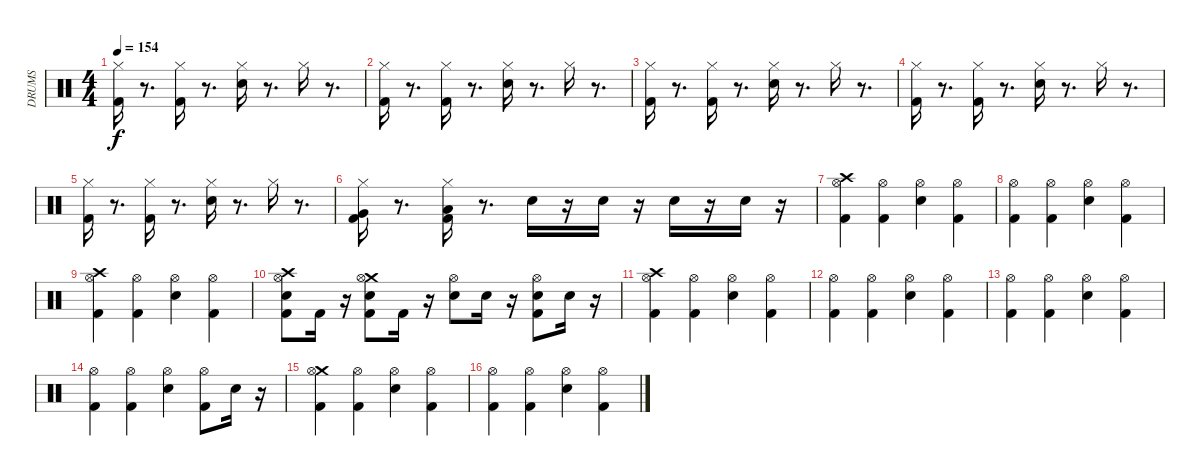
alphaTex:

\track ("DRUMS" "DRUMS") {instrument percussion}
\staff {score}
\articulation defaults
\ts (4 4)
\tempo 154
\clef neutral
\ks c
("Hi-Hat (closed)" "Kick (hit) 2").16{dy f} r.8{d} ("Hi-Hat (closed)" "Kick (hit) 2").16 r.8{d} ("Hi-Hat (closed)" "Snare (hit) 2").16 r.8{d} "Hi-Hat (closed)".16 r.8{d} |
("Hi-Hat (closed)" "Kick (hit) 2").16 r.8{d} ("Hi-Hat (closed)" "Kick (hit) 2").16 r.8{d} ("Hi-Hat (closed)" "Snare (hit) 2").16 r.8{d} "Hi-Hat (closed)".16 r.8{d} |
("Hi-Hat (closed)" "Kick (hit) 2").16 r.8{d} ("Hi-Hat (closed)" "Kick (hit) 2").16 r.8{d} ("Hi-Hat (closed)" "Snare (hit) 2").16 r.8{d} "Hi-Hat (closed)".16 r.8{d} |
("Hi-Hat (closed)" "Kick (hit) 2").16 r.8{d} ("Hi-Hat (closed)" "Kick (hit) 2").16 r.8{d} ("Hi-Hat (closed)" "Snare (hit) 2").16 r.8{d} "Hi-Hat (closed)".16 r.8{d} |
("Hi-Hat (closed)" "Kick (hit) 2").16 r.8{d} ("Hi-Hat (closed)" "Kick (hit) 2").16 r.8{d} ("Hi-Hat (closed)" "Snare (hit) 2").16 r.8{d} "Hi-Hat (closed)".16 r.8{d} |
("Very Low Tom (hit)" "Hi-Hat (closed)" "Kick (hit) 2").16 r.8{d} ("Low Floor Tom (hit)" "Hi-Hat (closed)" "Kick (hit) 2").16 r.8{d} "Snare (hit) 2".16 r.16 "Snare (hit) 2".16 r.16 "Snare (hit) 2".16 r.16 "Snare (hit) 2".16 r.16 |
("Crash high (hit)" "Hi-Hat (open)" "Kick (hit) 2").4 ("Hi-Hat (open)" "Kick (hit) 2").4 ("Hi-Hat (open)" "Snare (hit) 2").4 ("Hi-Hat (open)" "Kick (hit) 2").4 |
("Hi-Hat (open)" "Kick (hit) 2").4 ("Hi-Hat (open)" "Kick (hit) 2").4 ("Hi-Hat (open)" "Snare (hit) 2").4 ("Hi-Hat (open)" "Kick (hit) 2").4 |
("Crash high (hit)" "Hi-Hat (open)" "Kick (hit) 2").4 ("Hi-Hat (open)" "Kick (hit) 2").4 ("Hi-Hat (open)" "Snare (hit) 2").4 ("Hi-Hat (open)" "Kick (hit) 2").4 |
("Crash high (hit)" "Snare (hit) 2" "Hi-Hat (open)" "Kick (hit) 2").8 "Kick (hit) 2".16 r.16 ("Crash medium (hit)" "Snare (hit) 2" "Hi-Hat (open)" "Kick (hit) 2").8 "Kick (hit) 2".16 r.16 ("Hi-Hat (open)" "Snare (hit) 2").8 "Snare (hit) 2".16 r.16 ("Snare (hit) 2" "Hi-Hat (open)" "Kick (hit) 2").8 "Snare (hit) 2".16 r.16 |
("Crash high (hit)" "Hi-Hat (open)" "Kick (hit) 2").4 ("Hi-Hat (open)" "Kick (hit) 2").4 ("Hi-Hat (open)" "Snare (hit) 2").4 ("Hi-Hat (open)" "Kick (hit) 2").4 |
("Hi-Hat (open)" "Kick (hit) 2").4 ("Hi-Hat (open)" "Kick (hit) 2").4 ("Hi-Hat (open)" "Snare (hit) 2").4 ("Hi-Hat (open)" "Kick (hit) 2").4 |
("Hi-Hat (open)" "Kick (hit) 2").4 ("Hi-Hat (open)" "Kick (hit) 2").4 ("Hi-Hat (open)" "Snare (hit) 2").4 ("Hi-Hat (open)" "Kick (hit) 2").4 |
("Hi-Hat (open)" "Kick (hit) 2").4 ("Hi-Hat (open)" "Kick (hit) 2").4 ("Hi-Hat (open)" "Snare (hit) 2").4 ("Hi-Hat (open)" "Kick (hit) 2").8 "Snare (hit) 2".16 r.16 |
("Crash medium (hit)" "Hi-Hat (open)" "Kick (hit) 2").4 ("Hi-Hat (open)" "Kick (hit) 2").4 ("Hi-Hat (open)" "Snare (hit) 2").4 ("Hi-Hat (open)" "Kick (hit) 2").4 |
("Hi-Hat (open)" "Kick (hit) 2").4 ("Hi-Hat (open)" "Kick (hit) 2").4 ("Hi-Hat (open)" "Snare (hit) 2").4 ("Hi-Hat (open)" "Kick (hit) 2").4
